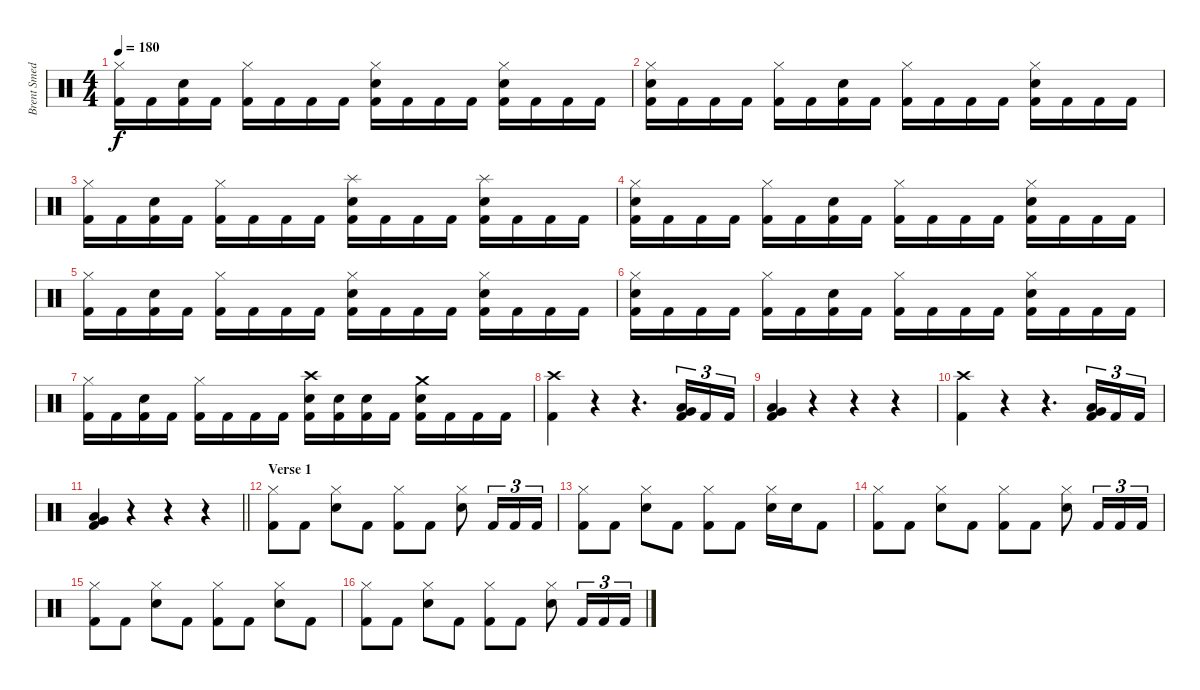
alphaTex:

\track ("Brent Smedley" "Brent Smed") {instrument percussion}
\staff {score}
\articulation defaults
\ts (4 4)
\tempo 180
\clef neutral
\ks c
("Hi-Hat (closed)" "Kick (hit) 2").16{dy f} "Kick (hit) 2".16 ("Snare (hit) 2" "Kick (hit) 2").16 "Kick (hit) 2".16 ("Hi-Hat (closed)" "Kick (hit) 2").16 "Kick (hit) 2".16 "Kick (hit) 2".16 "Kick (hit) 2".16 ("Hi-Hat (closed)" "Snare (hit) 2" "Kick (hit) 2").16 "Kick (hit) 2".16 "Kick (hit) 2".16 "Kick (hit) 2".16 ("Hi-Hat (closed)" "Snare (hit) 2" "Kick (hit) 2").16 "Kick (hit) 2".16 "Kick (hit) 2".16 "Kick (hit) 2".16 |
("Hi-Hat (closed)" "Snare (hit) 2" "Kick (hit) 2").16 "Kick (hit) 2".16 "Kick (hit) 2".16 "Kick (hit) 2".16 ("Hi-Hat (closed)" "Kick (hit) 2").16 "Kick (hit) 2".16 ("Snare (hit) 2" "Kick (hit) 2").16 "Kick (hit) 2".16 ("Hi-Hat (closed)" "Kick (hit) 2").16 "Kick (hit) 2".16 "Kick (hit) 2".16 "Kick (hit) 2".16 ("Hi-Hat (closed)" "Snare (hit) 2" "Kick (hit) 2").16 "Kick (hit) 2".16 "Kick (hit) 2".16 "Kick (hit) 2".16 |
("Hi-Hat (closed)" "Kick (hit) 2").16 "Kick (hit) 2".16 ("Snare (hit) 2" "Kick (hit) 2").16 "Kick (hit) 2".16 ("Hi-Hat (closed)" "Kick (hit) 2").16 "Kick (hit) 2".16 "Kick (hit) 2".16 "Kick (hit) 2".16 ("Splash (hit)" "Snare (hit) 2" "Kick (hit) 2").16 "Kick (hit) 2".16 "Kick (hit) 2".16 "Kick (hit) 2".16 ("Splash (hit)" "Snare (hit) 2" "Kick (hit) 2").16 "Kick (hit) 2".16 "Kick (hit) 2".16 "Kick (hit) 2".16 |
("Hi-Hat (closed)" "Snare (hit) 2" "Kick (hit) 2").16 "Kick (hit) 2".16 "Kick (hit) 2".16 "Kick (hit) 2".16 ("Hi-Hat (closed)" "Kick (hit) 2").16 "Kick (hit) 2".16 ("Snare (hit) 2" "Kick (hit) 2").16 "Kick (hit) 2".16 ("Hi-Hat (closed)" "Kick (hit) 2").16 "Kick (hit) 2".16 "Kick (hit) 2".16 "Kick (hit) 2".16 ("Hi-Hat (closed)" "Snare (hit) 2" "Kick (hit) 2").16 "Kick (hit) 2".16 "Kick (hit) 2".16 "Kick (hit) 2".16 |
("Hi-Hat (closed)" "Kick (hit) 2").16 "Kick (hit) 2".16 ("Snare (hit) 2" "Kick (hit) 2").16 "Kick (hit) 2".16 ("Hi-Hat (closed)" "Kick (hit) 2").16 "Kick (hit) 2".16 "Kick (hit) 2".16 "Kick (hit) 2".16 ("Hi-Hat (closed)" "Snare (hit) 2" "Kick (hit) 2").16 "Kick (hit) 2".16 "Kick (hit) 2".16 "Kick (hit) 2".16 ("Hi-Hat (closed)" "Snare (hit) 2" "Kick (hit) 2").16 "Kick (hit) 2".16 "Kick (hit) 2".16 "Kick (hit) 2".16 |
("Hi-Hat (closed)" "Snare (hit) 2" "Kick (hit) 2").16 "Kick (hit) 2".16 "Kick (hit) 2".16 "Kick (hit) 2".16 ("Hi-Hat (closed)" "Kick (hit) 2").16 "Kick (hit) 2".16 ("Snare (hit) 2" "Kick (hit) 2").16 "Kick (hit) 2".16 ("Hi-Hat (closed)" "Kick (hit) 2").16 "Kick (hit) 2".16 "Kick (hit) 2".16 "Kick (hit) 2".16 ("Hi-Hat (closed)" "Snare (hit) 2" "Kick (hit) 2").16 "Kick (hit) 2".16 "Kick (hit) 2".16 "Kick (hit) 2".16 |
("Hi-Hat (closed)" "Kick (hit) 2").16 "Kick (hit) 2".16 ("Snare (hit) 2" "Kick (hit) 2").16 "Kick (hit) 2".16 ("Hi-Hat (closed)" "Kick (hit) 2").16 "Kick (hit) 2".16 "Kick (hit) 2".16 "Kick (hit) 2".16 ("Crash high (hit)" "Snare (hit) 2" "Kick (hit) 2").16 ("Snare (hit) 2" "Kick (hit) 2").16 ("Snare (hit) 2" "Kick (hit) 2").16 "Kick (hit) 2".16 ("Crash medium (hit)" "Snare (hit) 2" "Kick (hit) 2").16 "Kick (hit) 2".16 "Kick (hit) 2".16 "Kick (hit) 2".16 |
("Crash high (hit)" "Kick (hit) 2").4 r.4 r.4{d} ("Low Tom (hit)" "Very Low Tom (hit)" "Kick (hit) 2").16{tu (3 2)} "Kick (hit) 2".16{tu (3 2)} "Kick (hit) 2".16{tu (3 2)} |
("Low Tom (hit)" "Very Low Tom (hit)" "Kick (hit) 2").4 r.4 r.4 r.4 |
("Crash high (hit)" "Kick (hit) 2").4 r.4 r.4{d} ("Low Tom (hit)" "Very Low Tom (hit)" "Kick (hit) 2").16{tu (3 2)} "Kick (hit) 2".16{tu (3 2)} "Kick (hit) 2".16{tu (3 2)} |
\barLineRight lightlight
("Low Tom (hit)" "Very Low Tom (hit)" "Kick (hit) 2").4 r.4 r.4 r.4 |
\section ("" "Verse 1")
("Hi-Hat (closed)" "Kick (hit) 2").8 "Kick (hit) 2".8 ("Hi-Hat (closed)" "Snare (hit) 2").8 "Kick (hit) 2".8 ("Hi-Hat (closed)" "Kick (hit) 2").8 "Kick (hit) 2".8 ("Hi-Hat (closed)" "Snare (hit) 2").8 "Kick (hit) 2".16{tu (3 2)} "Kick (hit) 2".16{tu (3 2)} "Kick (hit) 2".16{tu (3 2)} |
("Hi-Hat (closed)" "Kick (hit) 2").8 "Kick (hit) 2".8 ("Hi-Hat (closed)" "Snare (hit) 2").8 "Kick (hit) 2".8 ("Hi-Hat (closed)" "Kick (hit) 2").8 "Kick (hit) 2".8 ("Hi-Hat (closed)" "Snare (hit) 2").16 "Snare (hit) 2".16 "Kick (hit) 2".8 |
("Hi-Hat (closed)" "Kick (hit) 2").8 "Kick (hit) 2".8 ("Hi-Hat (closed)" "Snare (hit) 2").8 "Kick (hit) 2".8 ("Hi-Hat (closed)" "Kick (hit) 2").8 "Kick (hit) 2".8 ("Hi-Hat (closed)" "Snare (hit) 2").8 "Kick (hit) 2".16{tu (3 2)} "Kick (hit) 2".16{tu (3 2)} "Kick (hit) 2".16{tu (3 2)} |
("Hi-Hat (closed)" "Kick (hit) 2").8 "Kick (hit) 2".8 ("Hi-Hat (closed)" "Snare (hit) 2").8 "Kick (hit) 2".8 ("Hi-Hat (closed)" "Kick (hit) 2").8 "Kick (hit) 2".8 ("Hi-Hat (closed)" "Snare (hit) 2").8 "Kick (hit) 2".8 |
("Hi-Hat (closed)" "Kick (hit) 2").8 "Kick (hit) 2".8 ("Hi-Hat (closed)" "Snare (hit) 2").8 "Kick (hit) 2".8 ("Hi-Hat (closed)" "Kick (hit) 2").8 "Kick (hit) 2".8 ("Hi-Hat (closed)" "Snare (hit) 2").8 "Kick (hit) 2".16{tu (3 2)} "Kick (hit) 2".16{tu (3 2)} "Kick (hit) 2".16{tu (3 2)}
